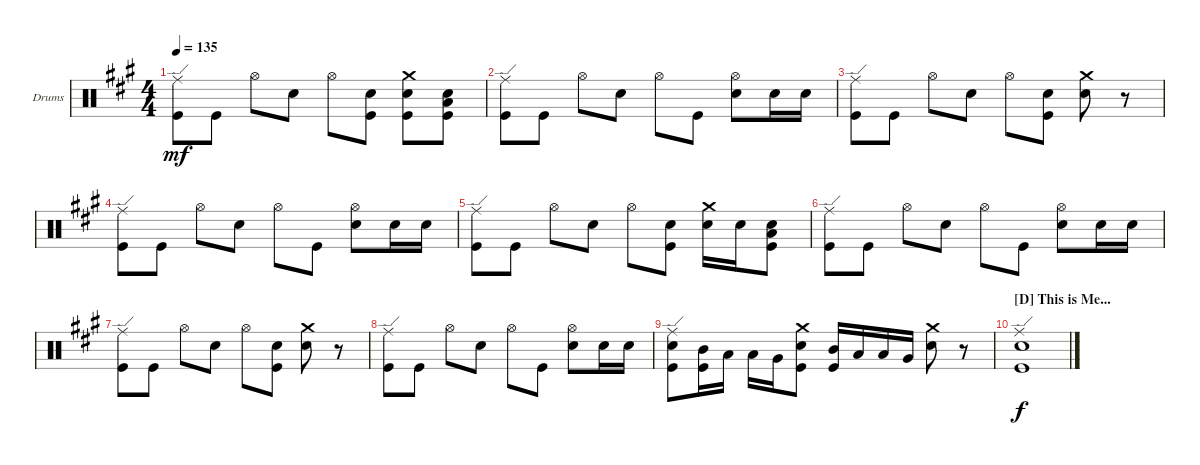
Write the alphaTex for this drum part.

\defaultSystemsLayout 4
\bracketExtendMode groupsimilarinstruments
\firstSystemTrackNameOrientation horizontal
\otherSystemsTrackNameOrientation horizontal
\track ("Drums" "Drums") {instrument percussion}
\staff {score}
\articulation defaults
\ts (4 4)
\tempo 135
\clef neutral
\ks f#minor
("Ride (edge)" "Kick (hit)").8{dy mf} "Kick (hit)".8 "Hi-Hat (open)".8 "Snare (hit) 2".8 "Hi-Hat (open)".8 ("Snare (hit) 2" "Kick (hit)").8 ("Crash medium (hit)" "Snare (hit) 2" "Kick (hit)").8 ("Low Tom (hit)" "Snare (hit) 2" "Kick (hit)").8 |
("Ride (edge)" "Kick (hit)").8 "Kick (hit)".8 "Hi-Hat (open)".8 "Snare (hit) 2".8 "Hi-Hat (open)".8 "Kick (hit)".8 ("Hi-Hat (open)" "Snare (hit) 2").8 "Snare (hit) 2".16 "Snare (hit) 2".16 |
("Ride (edge)" "Kick (hit)").8 "Kick (hit)".8 "Hi-Hat (open)".8 "Snare (hit) 2".8 "Hi-Hat (open)".8 ("Snare (hit) 2" "Kick (hit)").8 ("Crash medium (hit)" "Snare (hit) 2").8 r.8 |
("Ride (edge)" "Kick (hit)").8 "Kick (hit)".8 "Hi-Hat (open)".8 "Snare (hit) 2".8 "Hi-Hat (open)".8 "Kick (hit)".8 ("Hi-Hat (open)" "Snare (hit) 2").8 "Snare (hit) 2".16 "Snare (hit) 2".16 |
("Ride (edge)" "Kick (hit)").8 "Kick (hit)".8 "Hi-Hat (open)".8 "Snare (hit) 2".8 "Hi-Hat (open)".8 ("Snare (hit) 2" "Kick (hit)").8 ("Crash medium (hit)" "Snare (hit) 2").16 "Snare (hit) 2".16 ("Low Tom (hit)" "Snare (hit) 2" "Kick (hit)").8 |
("Ride (edge)" "Kick (hit)").8 "Kick (hit)".8 "Hi-Hat (open)".8 "Snare (hit) 2".8 "Hi-Hat (open)".8 "Kick (hit)".8 ("Hi-Hat (open)" "Snare (hit) 2").8 "Snare (hit) 2".16 "Snare (hit) 2".16 |
("Ride (edge)" "Kick (hit)").8 "Kick (hit)".8 "Hi-Hat (open)".8 "Snare (hit) 2".8 "Hi-Hat (open)".8 ("Snare (hit) 2" "Kick (hit)").8 ("Crash medium (hit)" "Snare (hit) 2").8 r.8 |
("Ride (edge)" "Kick (hit)").8 "Kick (hit)".8 "Hi-Hat (open)".8 "Snare (hit) 2".8 "Hi-Hat (open)".8 "Kick (hit)".8 ("Hi-Hat (open)" "Snare (hit) 2").8 "Snare (hit) 2".16 "Snare (hit) 2".16 |
("Snare (hit) 2" "Kick (hit)" "Ride (edge)").8 ("Mid Tom (hit)" "Kick (hit)").16 "Low Tom (hit)".16 "Low Tom (hit)".16 "Very Low Tom (hit)".16 ("Snare (hit) 2" "Kick (hit)" "Crash medium (hit)").8 ("Mid Tom (hit)" "Kick (hit)").16 "Low Tom (hit)".16 "Low Tom (hit)".16 "Very Low Tom (hit)".16 ("Snare (hit) 2" "Crash medium (hit)").8 r.8 |
\section ("D" "This is Me...")
("Kick (hit)" "Snare (hit) 2" "Ride (edge)").1{dy f}
